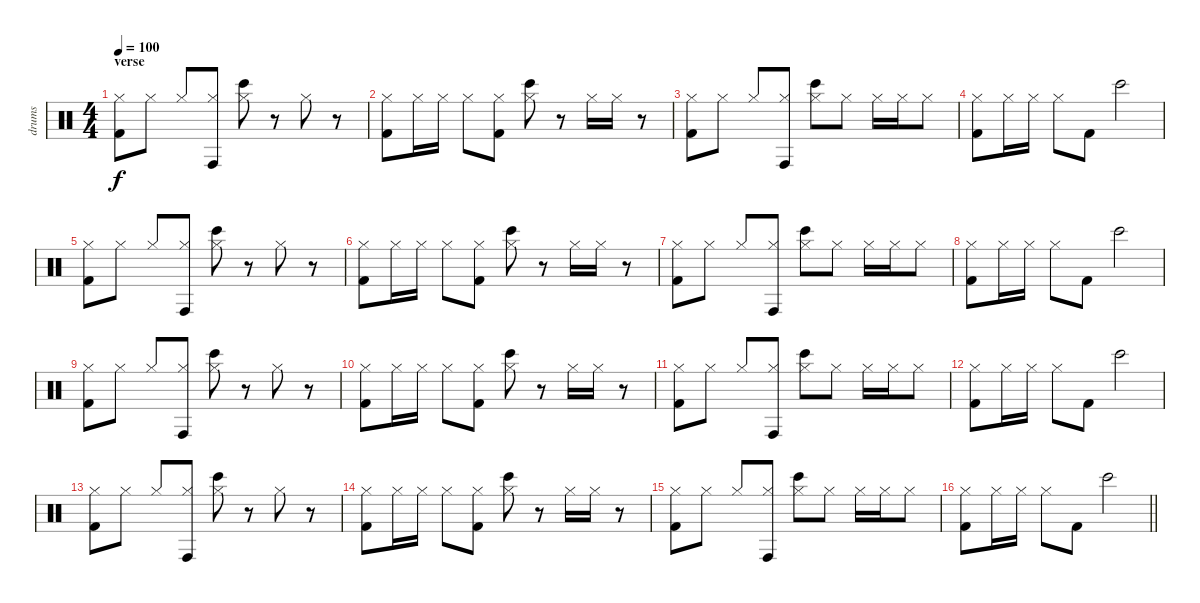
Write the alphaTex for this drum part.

\track ("drums" "drums") {instrument percussion}
\staff {score}
\articulation defaults
\ts (4 4)
\section ("" "verse")
\tempo 100
\clef neutral
\ks c
("Hi-Hat (closed)" "Kick (hit) 2").8{dy f} "Hi-Hat (closed)".8 "Hi-Hat (closed)".8 ("Hi-Hat (closed)" "Conga high (hit)").8 ("Hi-Hat (closed)" "Bongo High (hit)").8 r.8 "Hi-Hat (closed)".8 r.8 |
("Hi-Hat (closed)" "Kick (hit) 2").8 "Hi-Hat (closed)".16 "Hi-Hat (closed)".16 "Hi-Hat (closed)".8 ("Hi-Hat (closed)" "Kick (hit) 2").8 ("Hi-Hat (closed)" "Bongo High (hit)").8 r.8 "Hi-Hat (closed)".16 "Hi-Hat (closed)".16 r.8 |
("Hi-Hat (closed)" "Kick (hit) 2").8 "Hi-Hat (closed)".8 "Hi-Hat (closed)".8 ("Hi-Hat (closed)" "Conga high (hit)").8 ("Hi-Hat (closed)" "Bongo High (hit)").8 "Hi-Hat (closed)".8 "Hi-Hat (closed)".16 "Hi-Hat (closed)".16 "Hi-Hat (closed)".8 |
("Hi-Hat (closed)" "Kick (hit) 2").8 "Hi-Hat (closed)".16 "Hi-Hat (closed)".16 "Hi-Hat (closed)".8 "Kick (hit) 2".8 "Bongo High (hit)".2 |
("Hi-Hat (closed)" "Kick (hit) 2").8 "Hi-Hat (closed)".8 "Hi-Hat (closed)".8 ("Hi-Hat (closed)" "Conga high (hit)").8 ("Hi-Hat (closed)" "Bongo High (hit)").8 r.8 "Hi-Hat (closed)".8 r.8 |
("Hi-Hat (closed)" "Kick (hit) 2").8 "Hi-Hat (closed)".16 "Hi-Hat (closed)".16 "Hi-Hat (closed)".8 ("Hi-Hat (closed)" "Kick (hit) 2").8 ("Hi-Hat (closed)" "Bongo High (hit)").8 r.8 "Hi-Hat (closed)".16 "Hi-Hat (closed)".16 r.8 |
("Hi-Hat (closed)" "Kick (hit) 2").8 "Hi-Hat (closed)".8 "Hi-Hat (closed)".8 ("Hi-Hat (closed)" "Conga high (hit)").8 ("Hi-Hat (closed)" "Bongo High (hit)").8 "Hi-Hat (closed)".8 "Hi-Hat (closed)".16 "Hi-Hat (closed)".16 "Hi-Hat (closed)".8 |
("Hi-Hat (closed)" "Kick (hit) 2").8 "Hi-Hat (closed)".16 "Hi-Hat (closed)".16 "Hi-Hat (closed)".8 "Kick (hit) 2".8 "Bongo High (hit)".2 |
("Hi-Hat (closed)" "Kick (hit) 2").8 "Hi-Hat (closed)".8 "Hi-Hat (closed)".8 ("Hi-Hat (closed)" "Conga high (hit)").8 ("Hi-Hat (closed)" "Bongo High (hit)").8 r.8 "Hi-Hat (closed)".8 r.8 |
("Hi-Hat (closed)" "Kick (hit) 2").8 "Hi-Hat (closed)".16 "Hi-Hat (closed)".16 "Hi-Hat (closed)".8 ("Hi-Hat (closed)" "Kick (hit) 2").8 ("Hi-Hat (closed)" "Bongo High (hit)").8 r.8 "Hi-Hat (closed)".16 "Hi-Hat (closed)".16 r.8 |
("Hi-Hat (closed)" "Kick (hit) 2").8 "Hi-Hat (closed)".8 "Hi-Hat (closed)".8 ("Hi-Hat (closed)" "Conga high (hit)").8 ("Hi-Hat (closed)" "Bongo High (hit)").8 "Hi-Hat (closed)".8 "Hi-Hat (closed)".16 "Hi-Hat (closed)".16 "Hi-Hat (closed)".8 |
("Hi-Hat (closed)" "Kick (hit) 2").8 "Hi-Hat (closed)".16 "Hi-Hat (closed)".16 "Hi-Hat (closed)".8 "Kick (hit) 2".8 "Bongo High (hit)".2 |
("Hi-Hat (closed)" "Kick (hit) 2").8 "Hi-Hat (closed)".8 "Hi-Hat (closed)".8 ("Hi-Hat (closed)" "Conga high (hit)").8 ("Hi-Hat (closed)" "Bongo High (hit)").8 r.8 "Hi-Hat (closed)".8 r.8 |
("Hi-Hat (closed)" "Kick (hit) 2").8 "Hi-Hat (closed)".16 "Hi-Hat (closed)".16 "Hi-Hat (closed)".8 ("Hi-Hat (closed)" "Kick (hit) 2").8 ("Hi-Hat (closed)" "Bongo High (hit)").8 r.8 "Hi-Hat (closed)".16 "Hi-Hat (closed)".16 r.8 |
("Hi-Hat (closed)" "Kick (hit) 2").8 "Hi-Hat (closed)".8 "Hi-Hat (closed)".8 ("Hi-Hat (closed)" "Conga high (hit)").8 ("Hi-Hat (closed)" "Bongo High (hit)").8 "Hi-Hat (closed)".8 "Hi-Hat (closed)".16 "Hi-Hat (closed)".16 "Hi-Hat (closed)".8 |
\barLineRight lightlight
("Hi-Hat (closed)" "Kick (hit) 2").8 "Hi-Hat (closed)".16 "Hi-Hat (closed)".16 "Hi-Hat (closed)".8 "Kick (hit) 2".8 "Bongo High (hit)".2
